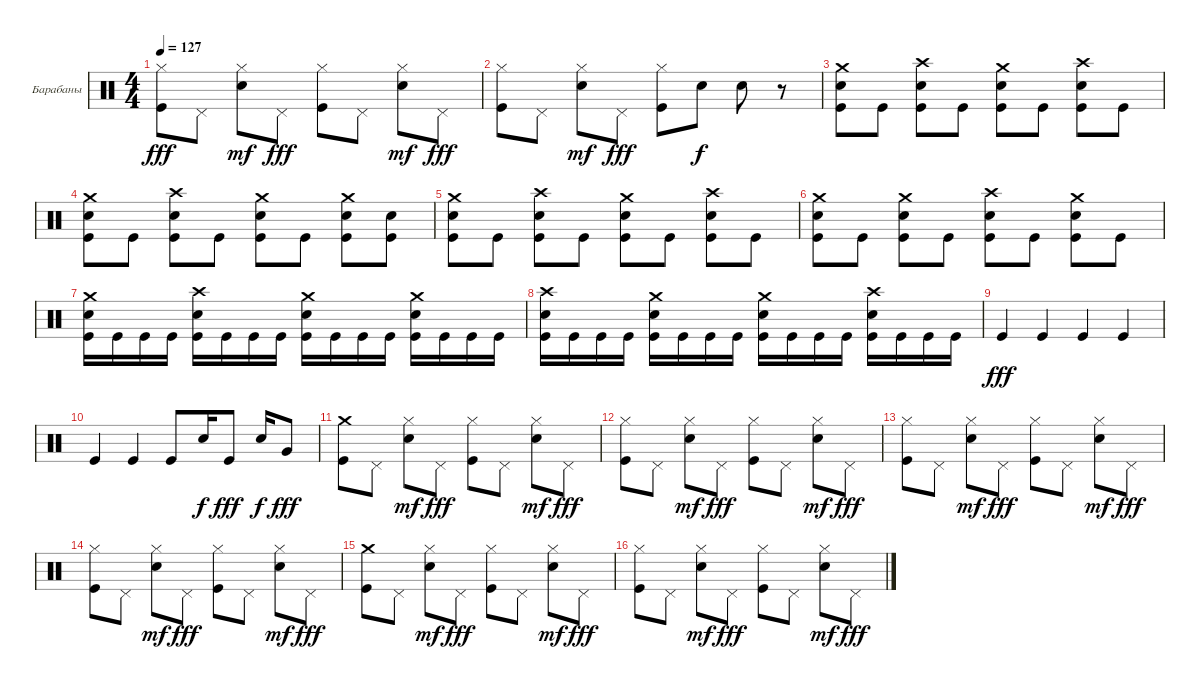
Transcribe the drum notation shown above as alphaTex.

\bracketExtendMode groupsimilarinstruments
\firstSystemTrackNameOrientation horizontal
\otherSystemsTrackNameOrientation horizontal
\track ("Ударные" "Барабаны") {instrument percussion}
\staff {score}
\articulation defaults
\ts (4 4)
\tempo 127
\clef neutral
\ks c
("Kick (hit)" "Hi-Hat (closed)").8{dy fff} "Pedal Hi-Hat (hit)".8 ("Hi-Hat (closed)" "Snare (hit) 2").8{dy mf} "Pedal Hi-Hat (hit)".8{dy fff} ("Kick (hit)" "Hi-Hat (closed)").8 "Pedal Hi-Hat (hit)".8 ("Hi-Hat (closed)" "Snare (hit) 2").8{dy mf} "Pedal Hi-Hat (hit)".8{dy fff} |
("Kick (hit)" "Hi-Hat (closed)").8 "Pedal Hi-Hat (hit)".8 ("Hi-Hat (closed)" "Snare (hit) 2").8{dy mf} "Pedal Hi-Hat (hit)".8{dy fff} ("Kick (hit)" "Hi-Hat (closed)").8 "Snare (hit) 2".8{dy f} "Snare (hit) 2".8 r.8 |
("Kick (hit)" "Crash medium (hit)" "Snare (hit) 2").8 "Kick (hit)".8 ("Kick (hit)" "Crash high (hit)" "Snare (hit) 2").8 "Kick (hit)".8 ("Kick (hit)" "Crash medium (hit)" "Snare (hit) 2").8 "Kick (hit)".8 ("Kick (hit)" "Crash high (hit)" "Snare (hit) 2").8 "Kick (hit)".8 |
("Kick (hit)" "Crash medium (hit)" "Snare (hit) 2").8 "Kick (hit)".8 ("Kick (hit)" "Crash high (hit)" "Snare (hit) 2").8 "Kick (hit)".8 ("Kick (hit)" "Crash medium (hit)" "Snare (hit) 2").8 "Kick (hit)".8 ("Kick (hit)" "Crash medium (hit)" "Snare (hit) 2").8 ("Kick (hit)" "Snare (hit) 2").8 |
("Kick (hit)" "Crash medium (hit)" "Snare (hit) 2").8 "Kick (hit)".8 ("Kick (hit)" "Crash high (hit)" "Snare (hit) 2").8 "Kick (hit)".8 ("Kick (hit)" "Crash medium (hit)" "Snare (hit) 2").8 "Kick (hit)".8 ("Kick (hit)" "Crash high (hit)" "Snare (hit) 2").8 "Kick (hit)".8 |
("Kick (hit)" "Crash medium (hit)" "Snare (hit) 2").8 "Kick (hit)".8 ("Kick (hit)" "Crash medium (hit)" "Snare (hit) 2").8 "Kick (hit)".8 ("Kick (hit)" "Crash high (hit)" "Snare (hit) 2").8 "Kick (hit)".8 ("Kick (hit)" "Crash medium (hit)" "Snare (hit) 2").8 "Kick (hit)".8 |
("Kick (hit)" "Crash medium (hit)" "Snare (hit) 2").16 "Kick (hit)".16 "Kick (hit)".16 "Kick (hit)".16 ("Kick (hit)" "Crash high (hit)" "Snare (hit) 2").16 "Kick (hit)".16 "Kick (hit)".16 "Kick (hit)".16 ("Kick (hit)" "Crash medium (hit)" "Snare (hit) 2").16 "Kick (hit)".16 "Kick (hit)".16 "Kick (hit)".16 ("Kick (hit)" "Crash medium (hit)" "Snare (hit) 2").16 "Kick (hit)".16 "Kick (hit)".16 "Kick (hit)".16 |
("Kick (hit)" "Crash high (hit)" "Snare (hit) 2").16 "Kick (hit)".16 "Kick (hit)".16 "Kick (hit)".16 ("Kick (hit)" "Crash medium (hit)" "Snare (hit) 2").16 "Kick (hit)".16 "Kick (hit)".16 "Kick (hit)".16 ("Kick (hit)" "Crash medium (hit)" "Snare (hit) 2").16 "Kick (hit)".16 "Kick (hit)".16 "Kick (hit)".16 ("Kick (hit)" "Crash high (hit)" "Snare (hit) 2").16 "Kick (hit)".16 "Kick (hit)".16 "Kick (hit)".16 |
"Kick (hit)".4{dy fff} "Kick (hit)".4 "Kick (hit)".4 "Kick (hit)".4 |
"Kick (hit)".4 "Kick (hit)".4 "Kick (hit)".8 "Snare (hit) 2".16{dy f} "Kick (hit)".8{dy fff} "Snare (hit) 2".16{dy f} "Very Low Tom (hit)".8{dy fff} |
("Kick (hit)" "Crash medium (hit)").8 "Pedal Hi-Hat (hit)".8 ("Hi-Hat (closed)" "Snare (hit) 2").8{dy mf} "Pedal Hi-Hat (hit)".8{dy fff} ("Kick (hit)" "Hi-Hat (closed)").8 "Pedal Hi-Hat (hit)".8 ("Hi-Hat (closed)" "Snare (hit) 2").8{dy mf} "Pedal Hi-Hat (hit)".8{dy fff} |
("Kick (hit)" "Hi-Hat (closed)").8 "Pedal Hi-Hat (hit)".8 ("Hi-Hat (closed)" "Snare (hit) 2").8{dy mf} "Pedal Hi-Hat (hit)".8{dy fff} ("Kick (hit)" "Hi-Hat (closed)").8 "Pedal Hi-Hat (hit)".8 ("Hi-Hat (closed)" "Snare (hit) 2").8{dy mf} "Pedal Hi-Hat (hit)".8{dy fff} |
("Kick (hit)" "Hi-Hat (closed)").8 "Pedal Hi-Hat (hit)".8 ("Hi-Hat (closed)" "Snare (hit) 2").8{dy mf} "Pedal Hi-Hat (hit)".8{dy fff} ("Kick (hit)" "Hi-Hat (closed)").8 "Pedal Hi-Hat (hit)".8 ("Hi-Hat (closed)" "Snare (hit) 2").8{dy mf} "Pedal Hi-Hat (hit)".8{dy fff} |
("Kick (hit)" "Hi-Hat (closed)").8 "Pedal Hi-Hat (hit)".8 ("Hi-Hat (closed)" "Snare (hit) 2").8{dy mf} "Pedal Hi-Hat (hit)".8{dy fff} ("Kick (hit)" "Hi-Hat (closed)").8 "Pedal Hi-Hat (hit)".8 ("Hi-Hat (closed)" "Snare (hit) 2").8{dy mf} "Pedal Hi-Hat (hit)".8{dy fff} |
("Kick (hit)" "Crash medium (hit)").8 "Pedal Hi-Hat (hit)".8 ("Hi-Hat (closed)" "Snare (hit) 2").8{dy mf} "Pedal Hi-Hat (hit)".8{dy fff} ("Kick (hit)" "Hi-Hat (closed)").8 "Pedal Hi-Hat (hit)".8 ("Hi-Hat (closed)" "Snare (hit) 2").8{dy mf} "Pedal Hi-Hat (hit)".8{dy fff} |
("Kick (hit)" "Hi-Hat (closed)").8 "Pedal Hi-Hat (hit)".8 ("Hi-Hat (closed)" "Snare (hit) 2").8{dy mf} "Pedal Hi-Hat (hit)".8{dy fff} ("Kick (hit)" "Hi-Hat (closed)").8 "Pedal Hi-Hat (hit)".8 ("Hi-Hat (closed)" "Snare (hit) 2").8{dy mf} "Pedal Hi-Hat (hit)".8{dy fff}
